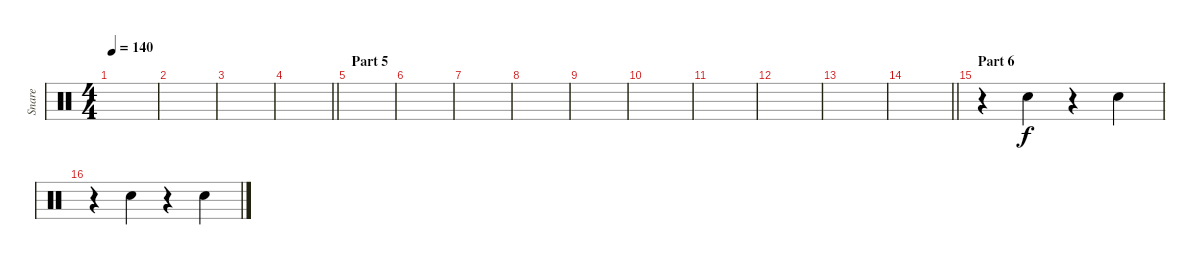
\track ("Snare" "Snare") {instrument percussion}
\staff {score}
\articulation defaults
\ts (4 4)
\tempo 140
\clef neutral
\ks c
|
|
|
\barLineRight lightlight
|
\section ("" "Part 5")
|
|
|
|
|
|
|
|
|
\barLineRight lightlight
|
\section ("" "Part 6")
r.4 "Snare (hit) 2".4 r.4 "Snare (hit) 2".4 |
r.4 "Snare (hit) 2".4 r.4 "Snare (hit) 2".4
